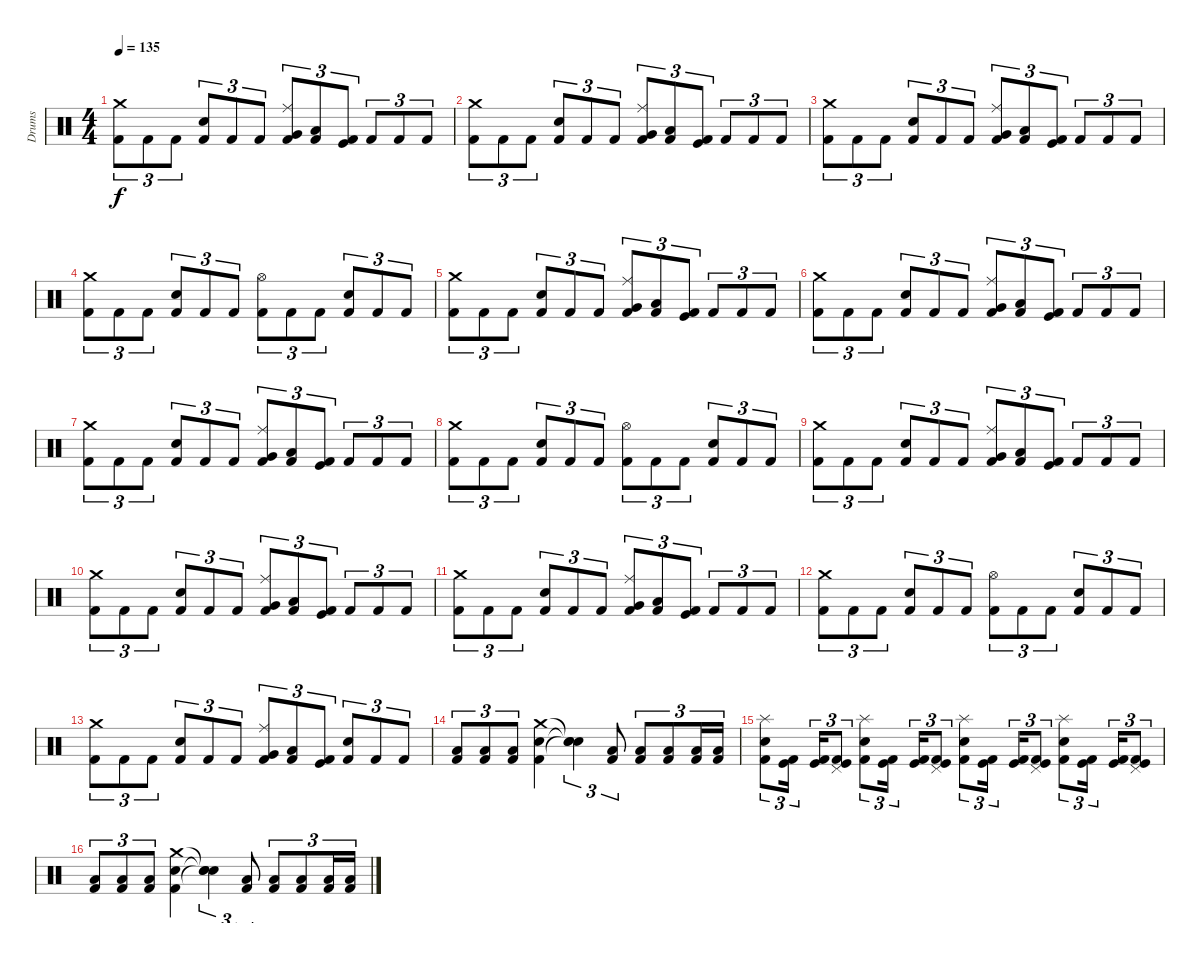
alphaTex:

\track ("Drums" "Drums") {instrument percussion}
\staff {score}
\articulation defaults
\ts (4 4)
\tempo 135
\clef neutral
\ks c
("Crash medium (hit)" "Kick (hit) 2").8{tu (3 2) dy f} "Kick (hit) 2".8{tu (3 2)} "Kick (hit) 2".8{tu (3 2)} ("Snare (hit) 2" "Kick (hit) 2").8{tu (3 2)} "Kick (hit) 2".8{tu (3 2)} "Kick (hit) 2".8{tu (3 2)} ("Ride (middle)" "Very Low Tom (hit)" "Kick (hit) 2").8{tu (3 2)} ("Low Floor Tom (hit)" "Kick (hit) 2").8{tu (3 2)} ("Kick (hit)" "Kick (hit) 2").8{tu (3 2)} "Kick (hit) 2".8{tu (3 2)} "Kick (hit) 2".8{tu (3 2)} "Kick (hit) 2".8{tu (3 2)} |
("Crash medium (hit)" "Kick (hit) 2").8{tu (3 2)} "Kick (hit) 2".8{tu (3 2)} "Kick (hit) 2".8{tu (3 2)} ("Snare (hit) 2" "Kick (hit) 2").8{tu (3 2)} "Kick (hit) 2".8{tu (3 2)} "Kick (hit) 2".8{tu (3 2)} ("Ride (middle)" "Very Low Tom (hit)" "Kick (hit) 2").8{tu (3 2)} ("Low Floor Tom (hit)" "Kick (hit) 2").8{tu (3 2)} ("Kick (hit)" "Kick (hit) 2").8{tu (3 2)} "Kick (hit) 2".8{tu (3 2)} "Kick (hit) 2".8{tu (3 2)} "Kick (hit) 2".8{tu (3 2)} |
("Crash medium (hit)" "Kick (hit) 2").8{tu (3 2)} "Kick (hit) 2".8{tu (3 2)} "Kick (hit) 2".8{tu (3 2)} ("Snare (hit) 2" "Kick (hit) 2").8{tu (3 2)} "Kick (hit) 2".8{tu (3 2)} "Kick (hit) 2".8{tu (3 2)} ("Ride (middle)" "Very Low Tom (hit)" "Kick (hit) 2").8{tu (3 2)} ("Low Floor Tom (hit)" "Kick (hit) 2").8{tu (3 2)} ("Kick (hit)" "Kick (hit) 2").8{tu (3 2)} "Kick (hit) 2".8{tu (3 2)} "Kick (hit) 2".8{tu (3 2)} "Kick (hit) 2".8{tu (3 2)} |
("Crash medium (hit)" "Kick (hit) 2").8{tu (3 2)} "Kick (hit) 2".8{tu (3 2)} "Kick (hit) 2".8{tu (3 2)} ("Snare (hit) 2" "Kick (hit) 2").8{tu (3 2)} "Kick (hit) 2".8{tu (3 2)} "Kick (hit) 2".8{tu (3 2)} ("Hi-Hat (open)" "Kick (hit) 2").8{tu (3 2)} "Kick (hit) 2".8{tu (3 2)} "Kick (hit) 2".8{tu (3 2)} ("Snare (hit) 2" "Kick (hit) 2").8{tu (3 2)} "Kick (hit) 2".8{tu (3 2)} "Kick (hit) 2".8{tu (3 2)} |
("Crash medium (hit)" "Kick (hit) 2").8{tu (3 2)} "Kick (hit) 2".8{tu (3 2)} "Kick (hit) 2".8{tu (3 2)} ("Snare (hit) 2" "Kick (hit) 2").8{tu (3 2)} "Kick (hit) 2".8{tu (3 2)} "Kick (hit) 2".8{tu (3 2)} ("Ride (middle)" "Very Low Tom (hit)" "Kick (hit) 2").8{tu (3 2)} ("Low Floor Tom (hit)" "Kick (hit) 2").8{tu (3 2)} ("Kick (hit)" "Kick (hit) 2").8{tu (3 2)} "Kick (hit) 2".8{tu (3 2)} "Kick (hit) 2".8{tu (3 2)} "Kick (hit) 2".8{tu (3 2)} |
("Crash medium (hit)" "Kick (hit) 2").8{tu (3 2)} "Kick (hit) 2".8{tu (3 2)} "Kick (hit) 2".8{tu (3 2)} ("Snare (hit) 2" "Kick (hit) 2").8{tu (3 2)} "Kick (hit) 2".8{tu (3 2)} "Kick (hit) 2".8{tu (3 2)} ("Ride (middle)" "Very Low Tom (hit)" "Kick (hit) 2").8{tu (3 2)} ("Low Floor Tom (hit)" "Kick (hit) 2").8{tu (3 2)} ("Kick (hit)" "Kick (hit) 2").8{tu (3 2)} "Kick (hit) 2".8{tu (3 2)} "Kick (hit) 2".8{tu (3 2)} "Kick (hit) 2".8{tu (3 2)} |
("Crash medium (hit)" "Kick (hit) 2").8{tu (3 2)} "Kick (hit) 2".8{tu (3 2)} "Kick (hit) 2".8{tu (3 2)} ("Snare (hit) 2" "Kick (hit) 2").8{tu (3 2)} "Kick (hit) 2".8{tu (3 2)} "Kick (hit) 2".8{tu (3 2)} ("Ride (middle)" "Very Low Tom (hit)" "Kick (hit) 2").8{tu (3 2)} ("Low Floor Tom (hit)" "Kick (hit) 2").8{tu (3 2)} ("Kick (hit)" "Kick (hit) 2").8{tu (3 2)} "Kick (hit) 2".8{tu (3 2)} "Kick (hit) 2".8{tu (3 2)} "Kick (hit) 2".8{tu (3 2)} |
("Crash medium (hit)" "Kick (hit) 2").8{tu (3 2)} "Kick (hit) 2".8{tu (3 2)} "Kick (hit) 2".8{tu (3 2)} ("Snare (hit) 2" "Kick (hit) 2").8{tu (3 2)} "Kick (hit) 2".8{tu (3 2)} "Kick (hit) 2".8{tu (3 2)} ("Hi-Hat (open)" "Kick (hit) 2").8{tu (3 2)} "Kick (hit) 2".8{tu (3 2)} "Kick (hit) 2".8{tu (3 2)} ("Snare (hit) 2" "Kick (hit) 2").8{tu (3 2)} "Kick (hit) 2".8{tu (3 2)} "Kick (hit) 2".8{tu (3 2)} |
("Crash medium (hit)" "Kick (hit) 2").8{tu (3 2)} "Kick (hit) 2".8{tu (3 2)} "Kick (hit) 2".8{tu (3 2)} ("Snare (hit) 2" "Kick (hit) 2").8{tu (3 2)} "Kick (hit) 2".8{tu (3 2)} "Kick (hit) 2".8{tu (3 2)} ("Ride (middle)" "Very Low Tom (hit)" "Kick (hit) 2").8{tu (3 2)} ("Low Floor Tom (hit)" "Kick (hit) 2").8{tu (3 2)} ("Kick (hit)" "Kick (hit) 2").8{tu (3 2)} "Kick (hit) 2".8{tu (3 2)} "Kick (hit) 2".8{tu (3 2)} "Kick (hit) 2".8{tu (3 2)} |
("Crash medium (hit)" "Kick (hit) 2").8{tu (3 2)} "Kick (hit) 2".8{tu (3 2)} "Kick (hit) 2".8{tu (3 2)} ("Snare (hit) 2" "Kick (hit) 2").8{tu (3 2)} "Kick (hit) 2".8{tu (3 2)} "Kick (hit) 2".8{tu (3 2)} ("Ride (middle)" "Very Low Tom (hit)" "Kick (hit) 2").8{tu (3 2)} ("Low Floor Tom (hit)" "Kick (hit) 2").8{tu (3 2)} ("Kick (hit)" "Kick (hit) 2").8{tu (3 2)} "Kick (hit) 2".8{tu (3 2)} "Kick (hit) 2".8{tu (3 2)} "Kick (hit) 2".8{tu (3 2)} |
("Crash medium (hit)" "Kick (hit) 2").8{tu (3 2)} "Kick (hit) 2".8{tu (3 2)} "Kick (hit) 2".8{tu (3 2)} ("Snare (hit) 2" "Kick (hit) 2").8{tu (3 2)} "Kick (hit) 2".8{tu (3 2)} "Kick (hit) 2".8{tu (3 2)} ("Ride (middle)" "Very Low Tom (hit)" "Kick (hit) 2").8{tu (3 2)} ("Low Floor Tom (hit)" "Kick (hit) 2").8{tu (3 2)} ("Kick (hit)" "Kick (hit) 2").8{tu (3 2)} "Kick (hit) 2".8{tu (3 2)} "Kick (hit) 2".8{tu (3 2)} "Kick (hit) 2".8{tu (3 2)} |
("Crash medium (hit)" "Kick (hit) 2").8{tu (3 2)} "Kick (hit) 2".8{tu (3 2)} "Kick (hit) 2".8{tu (3 2)} ("Snare (hit) 2" "Kick (hit) 2").8{tu (3 2)} "Kick (hit) 2".8{tu (3 2)} "Kick (hit) 2".8{tu (3 2)} ("Hi-Hat (open)" "Kick (hit) 2").8{tu (3 2)} "Kick (hit) 2".8{tu (3 2)} "Kick (hit) 2".8{tu (3 2)} ("Snare (hit) 2" "Kick (hit) 2").8{tu (3 2)} "Kick (hit) 2".8{tu (3 2)} "Kick (hit) 2".8{tu (3 2)} |
("Crash medium (hit)" "Kick (hit) 2").8{tu (3 2)} "Kick (hit) 2".8{tu (3 2)} "Kick (hit) 2".8{tu (3 2)} ("Snare (hit) 2" "Kick (hit) 2").8{tu (3 2)} "Kick (hit) 2".8{tu (3 2)} "Kick (hit) 2".8{tu (3 2)} ("Ride (middle)" "Very Low Tom (hit)" "Kick (hit) 2").8{tu (3 2)} ("Low Floor Tom (hit)" "Kick (hit) 2").8{tu (3 2)} ("Kick (hit)" "Kick (hit) 2").8{tu (3 2)} ("Snare (hit) 2" "Kick (hit) 2").8{tu (3 2)} "Kick (hit) 2".8{tu (3 2)} "Kick (hit) 2".8{tu (3 2)} |
("Low Floor Tom (hit)" "Kick (hit) 2").8{tu (3 2)} ("Low Floor Tom (hit)" "Kick (hit) 2").8{tu (3 2)} ("Low Floor Tom (hit)" "Kick (hit) 2").8{tu (3 2)} ("Crash medium (hit)" "Snare (hit) 2" "Kick (hit) 2").4 ("Snare (hit)"{t} "Snare (hit)"{t} "Snare (hit)"{t}).4{tu (3 2)} ("Low Floor Tom (hit)" "Kick (hit) 2").8{tu (3 2)} ("Low Floor Tom (hit)" "Kick (hit) 2").8{tu (3 2)} ("Low Floor Tom (hit)" "Kick (hit) 2").8{tu (3 2)} ("Low Floor Tom (hit)" "Kick (hit) 2").16{tu (3 2)} ("Low Floor Tom (hit)" "Kick (hit) 2").16{tu (3 2)} |
("Splash (hit)" "Snare (hit) 2" "Kick (hit) 2").8{tu (3 2)} ("Kick (hit)" "Kick (hit) 2").16{tu (3 2)} ("Kick (hit)" "Kick (hit) 2").16{tu (3 2)} ("Pedal Hi-Hat (hit)" "Kick (hit)" "Kick (hit) 2").8{tu (3 2)} ("Splash (hit)" "Snare (hit) 2" "Kick (hit) 2").8{tu (3 2)} ("Kick (hit)" "Kick (hit) 2").16{tu (3 2)} ("Kick (hit)" "Kick (hit) 2").16{tu (3 2)} ("Pedal Hi-Hat (hit)" "Kick (hit)" "Kick (hit) 2").8{tu (3 2)} ("Splash (hit)" "Snare (hit) 2" "Kick (hit) 2").8{tu (3 2)} ("Kick (hit)" "Kick (hit) 2").16{tu (3 2)} ("Kick (hit)" "Kick (hit) 2").16{tu (3 2)} ("Pedal Hi-Hat (hit)" "Kick (hit)" "Kick (hit) 2").8{tu (3 2)} ("Splash (hit)" "Snare (hit) 2" "Kick (hit) 2").8{tu (3 2)} ("Kick (hit)" "Kick (hit) 2").16{tu (3 2)} ("Kick (hit)" "Kick (hit) 2").16{tu (3 2)} ("Pedal Hi-Hat (hit)" "Kick (hit)" "Kick (hit) 2").8{tu (3 2)} |
("Low Floor Tom (hit)" "Kick (hit) 2").8{tu (3 2)} ("Low Floor Tom (hit)" "Kick (hit) 2").8{tu (3 2)} ("Low Floor Tom (hit)" "Kick (hit) 2").8{tu (3 2)} ("Crash medium (hit)" "Snare (hit) 2" "Kick (hit) 2").4 ("Snare (hit)"{t} "Snare (hit)"{t} "Snare (hit)"{t}).4{tu (3 2)} ("Low Floor Tom (hit)" "Kick (hit) 2").8{tu (3 2)} ("Low Floor Tom (hit)" "Kick (hit) 2").8{tu (3 2)} ("Low Floor Tom (hit)" "Kick (hit) 2").8{tu (3 2)} ("Low Floor Tom (hit)" "Kick (hit) 2").16{tu (3 2)} ("Low Floor Tom (hit)" "Kick (hit) 2").16{tu (3 2)}
